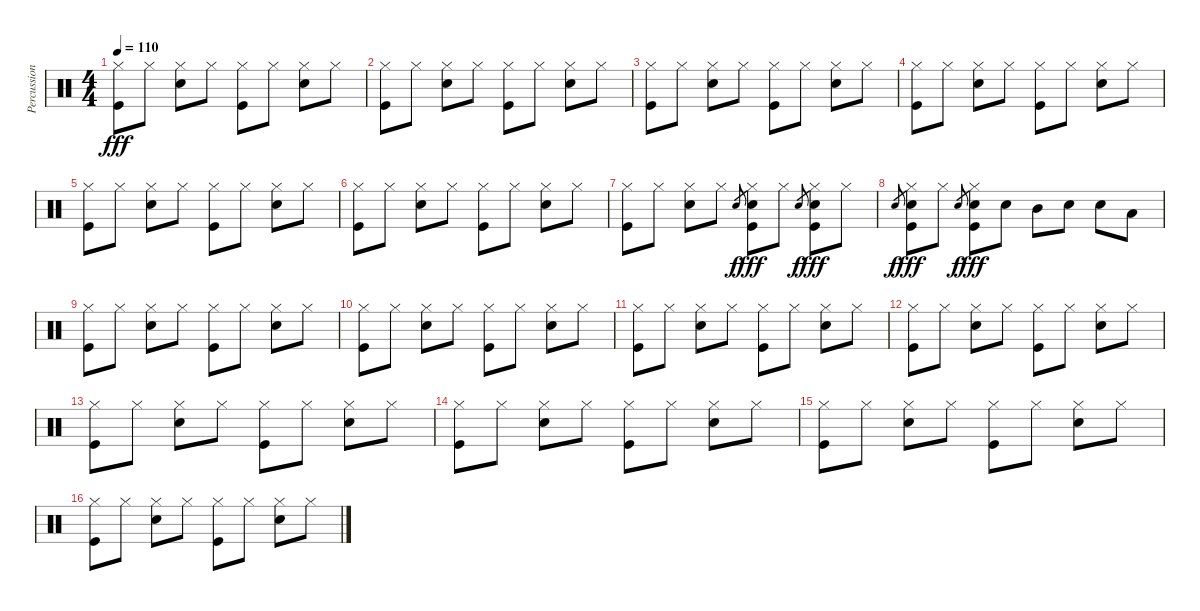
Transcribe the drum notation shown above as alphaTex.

\track ("Percussion" "Percussion") {instrument percussion}
\staff {score}
\articulation defaults
\ts (4 4)
\tempo 110
\clef neutral
\ks c
("Hi-Hat (closed)" "Kick (hit)").8{dy fff} "Hi-Hat (closed)".8 ("Hi-Hat (closed)" "Snare (hit) 2").8 "Hi-Hat (closed)".8 ("Hi-Hat (closed)" "Kick (hit)").8 "Hi-Hat (closed)".8 ("Hi-Hat (closed)" "Snare (hit) 2").8 "Hi-Hat (closed)".8 |
("Hi-Hat (closed)" "Kick (hit)").8 "Hi-Hat (closed)".8 ("Hi-Hat (closed)" "Snare (hit) 2").8 "Hi-Hat (closed)".8 ("Hi-Hat (closed)" "Kick (hit)").8 "Hi-Hat (closed)".8 ("Hi-Hat (closed)" "Snare (hit) 2").8 "Hi-Hat (closed)".8 |
("Hi-Hat (closed)" "Kick (hit)").8 "Hi-Hat (closed)".8 ("Hi-Hat (closed)" "Snare (hit) 2").8 "Hi-Hat (closed)".8 ("Hi-Hat (closed)" "Kick (hit)").8 "Hi-Hat (closed)".8 ("Hi-Hat (closed)" "Snare (hit) 2").8 "Hi-Hat (closed)".8 |
("Hi-Hat (closed)" "Kick (hit)").8 "Hi-Hat (closed)".8 ("Hi-Hat (closed)" "Snare (hit) 2").8 "Hi-Hat (closed)".8 ("Hi-Hat (closed)" "Kick (hit)").8 "Hi-Hat (closed)".8 ("Hi-Hat (closed)" "Snare (hit) 2").8 "Hi-Hat (closed)".8 |
("Hi-Hat (closed)" "Kick (hit)").8 "Hi-Hat (closed)".8 ("Hi-Hat (closed)" "Snare (hit) 2").8 "Hi-Hat (closed)".8 ("Hi-Hat (closed)" "Kick (hit)").8 "Hi-Hat (closed)".8 ("Hi-Hat (closed)" "Snare (hit) 2").8 "Hi-Hat (closed)".8 |
("Hi-Hat (closed)" "Kick (hit)").8 "Hi-Hat (closed)".8 ("Hi-Hat (closed)" "Snare (hit) 2").8 "Hi-Hat (closed)".8 ("Hi-Hat (closed)" "Kick (hit)").8 "Hi-Hat (closed)".8 ("Hi-Hat (closed)" "Snare (hit) 2").8 "Hi-Hat (closed)".8 |
("Hi-Hat (closed)" "Kick (hit)").8 "Hi-Hat (closed)".8 ("Hi-Hat (closed)" "Snare (hit) 2").8 "Hi-Hat (closed)".8 "Snare (hit) 2".8{gr dy f} ("Hi-Hat (closed)" "Snare (hit) 2" "Kick (hit)").8{dy fff} "Hi-Hat (closed)".8 "Snare (hit) 2".8{gr dy f} ("Hi-Hat (closed)" "Snare (hit) 2" "Kick (hit)").8{dy fff} "Hi-Hat (closed)".8 |
"Snare (hit) 2".8{gr dy f} ("Hi-Hat (closed)" "Snare (hit) 2" "Kick (hit)").8{dy fff} "Hi-Hat (closed)".8 "Snare (hit) 2".8{gr dy f} ("Hi-Hat (closed)" "Snare (hit) 2" "Kick (hit)").8{dy fff} "Electric Snare (hit)".8 "Mid Tom (hit)".8 "Electric Snare (hit)".8 "Electric Snare (hit)".8 "Low Tom (hit)".8 |
("Hi-Hat (closed)" "Kick (hit)").8 "Hi-Hat (closed)".8 ("Hi-Hat (closed)" "Snare (hit) 2").8 "Hi-Hat (closed)".8 ("Hi-Hat (closed)" "Kick (hit)").8 "Hi-Hat (closed)".8 ("Hi-Hat (closed)" "Snare (hit) 2").8 "Hi-Hat (closed)".8 |
("Hi-Hat (closed)" "Kick (hit)").8 "Hi-Hat (closed)".8 ("Hi-Hat (closed)" "Snare (hit) 2").8 "Hi-Hat (closed)".8 ("Hi-Hat (closed)" "Kick (hit)").8 "Hi-Hat (closed)".8 ("Hi-Hat (closed)" "Snare (hit) 2").8 "Hi-Hat (closed)".8 |
("Hi-Hat (closed)" "Kick (hit)").8 "Hi-Hat (closed)".8 ("Hi-Hat (closed)" "Snare (hit) 2").8 "Hi-Hat (closed)".8 ("Hi-Hat (closed)" "Kick (hit)").8 "Hi-Hat (closed)".8 ("Hi-Hat (closed)" "Snare (hit) 2").8 "Hi-Hat (closed)".8 |
("Hi-Hat (closed)" "Kick (hit)").8 "Hi-Hat (closed)".8 ("Hi-Hat (closed)" "Snare (hit) 2").8 "Hi-Hat (closed)".8 ("Hi-Hat (closed)" "Kick (hit)").8 "Hi-Hat (closed)".8 ("Hi-Hat (closed)" "Snare (hit) 2").8 "Hi-Hat (closed)".8 |
("Hi-Hat (closed)" "Kick (hit)").8 "Hi-Hat (closed)".8 ("Hi-Hat (closed)" "Snare (hit) 2").8 "Hi-Hat (closed)".8 ("Hi-Hat (closed)" "Kick (hit)").8 "Hi-Hat (closed)".8 ("Hi-Hat (closed)" "Snare (hit) 2").8 "Hi-Hat (closed)".8 |
("Hi-Hat (closed)" "Kick (hit)").8 "Hi-Hat (closed)".8 ("Hi-Hat (closed)" "Snare (hit) 2").8 "Hi-Hat (closed)".8 ("Hi-Hat (closed)" "Kick (hit)").8 "Hi-Hat (closed)".8 ("Hi-Hat (closed)" "Snare (hit) 2").8 "Hi-Hat (closed)".8 |
("Hi-Hat (closed)" "Kick (hit)").8 "Hi-Hat (closed)".8 ("Hi-Hat (closed)" "Snare (hit) 2").8 "Hi-Hat (closed)".8 ("Hi-Hat (closed)" "Kick (hit)").8 "Hi-Hat (closed)".8 ("Hi-Hat (closed)" "Snare (hit) 2").8 "Hi-Hat (closed)".8 |
("Hi-Hat (closed)" "Kick (hit)").8 "Hi-Hat (closed)".8 ("Hi-Hat (closed)" "Snare (hit) 2").8 "Hi-Hat (closed)".8 ("Hi-Hat (closed)" "Kick (hit)").8 "Hi-Hat (closed)".8 ("Hi-Hat (closed)" "Snare (hit) 2").8 "Hi-Hat (closed)".8
